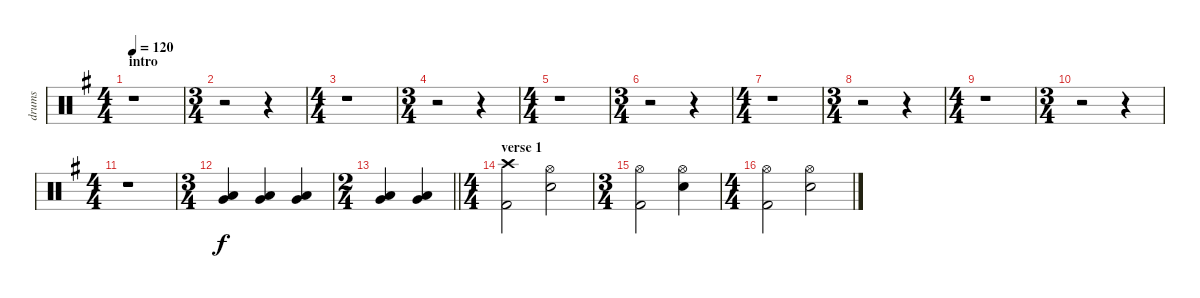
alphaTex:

\track ("drums" "drums") {instrument percussion}
\staff {score}
\articulation defaults
\ts (4 4)
\section ("" "intro")
\tempo 120
\clef neutral
\ks g
r.1{dy f} |
\ts (3 4)
r.2 r.4 |
\ts (4 4)
r.1 |
\ts (3 4)
r.2 r.4 |
\ts (4 4)
r.1 |
\ts (3 4)
r.2 r.4 |
\ts (4 4)
r.1 |
\ts (3 4)
r.2 r.4 |
\ts (4 4)
r.1 |
\ts (3 4)
r.2 r.4 |
\ts (4 4)
r.1 |
\ts (3 4)
("Low Floor Tom (hit)" "Very Low Tom (hit)").4 ("Low Floor Tom (hit)" "Very Low Tom (hit)").4 ("Low Floor Tom (hit)" "Very Low Tom (hit)").4 |
\ts (2 4)
\barLineRight lightlight
("Low Floor Tom (hit)" "Very Low Tom (hit)").4 ("Low Floor Tom (hit)" "Very Low Tom (hit)").4 |
\ts (4 4)
\section ("" "verse 1")
("Crash high (hit)" "Kick (hit) 2").2 ("Hi-Hat (open)" "Snare (hit) 2").2 |
\ts (3 4)
("Hi-Hat (open)" "Kick (hit) 2").2 ("Hi-Hat (open)" "Snare (hit) 2").4 |
\ts (4 4)
("Hi-Hat (open)" "Kick (hit) 2").2 ("Hi-Hat (open)" "Snare (hit) 2").2
